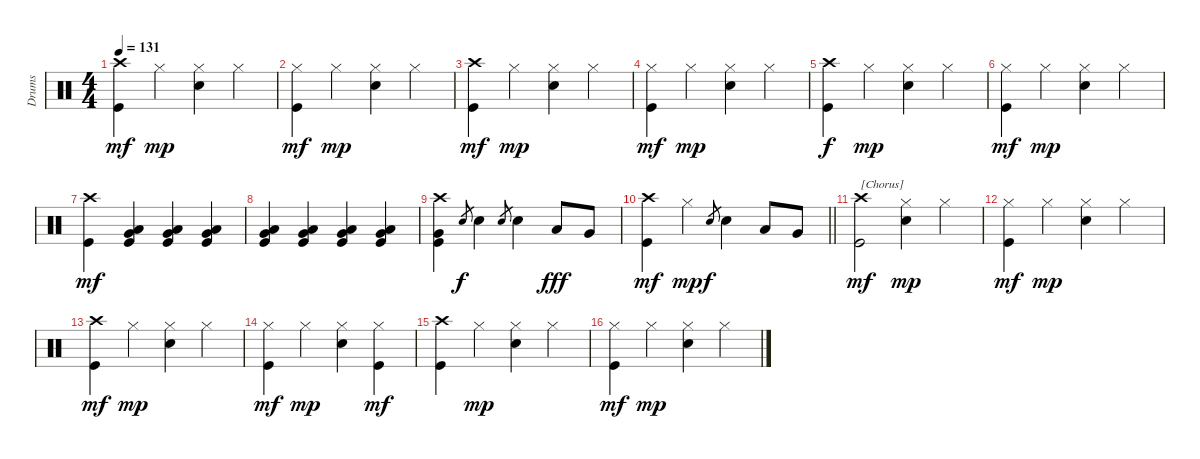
\track ("Drums" "Drums") {instrument percussion}
\staff {score}
\articulation defaults
\ts (4 4)
\tempo 131
\clef neutral
\ks c
("Crash high (hit)" "Kick (hit)").4{dy mf} "Hi-Hat (closed)".4{dy mp} ("Hi-Hat (closed)" "Snare (hit) 2").4 "Hi-Hat (closed)".4 |
("Hi-Hat (closed)" "Kick (hit)").4{dy mf} "Hi-Hat (closed)".4{dy mp} ("Hi-Hat (closed)" "Snare (hit) 2").4 "Hi-Hat (closed)".4 |
("Crash high (hit)" "Kick (hit)").4{dy mf} "Hi-Hat (closed)".4{dy mp} ("Hi-Hat (closed)" "Snare (hit) 2").4 "Hi-Hat (closed)".4 |
("Hi-Hat (closed)" "Kick (hit)").4{dy mf} "Hi-Hat (closed)".4{dy mp} ("Hi-Hat (closed)" "Snare (hit) 2").4 "Hi-Hat (closed)".4 |
("Crash high (hit)" "Kick (hit)").4{dy f} "Hi-Hat (closed)".4{dy mp} ("Hi-Hat (closed)" "Snare (hit) 2").4 "Hi-Hat (closed)".4 |
("Hi-Hat (closed)" "Kick (hit)").4{dy mf} "Hi-Hat (closed)".4{dy mp} ("Hi-Hat (closed)" "Snare (hit) 2").4 "Hi-Hat (closed)".4 |
("Crash high (hit)" "Kick (hit)").4{dy mf} ("Very Low Tom (hit)" "Low Tom (hit)" "Kick (hit)").4 ("Very Low Tom (hit)" "Low Tom (hit)" "Kick (hit)").4 ("Very Low Tom (hit)" "Low Tom (hit)" "Kick (hit)").4 |
("Very Low Tom (hit)" "Low Tom (hit)" "Kick (hit)").4 ("Very Low Tom (hit)" "Low Tom (hit)" "Kick (hit)").4 ("Very Low Tom (hit)" "Low Tom (hit)" "Kick (hit)").4 ("Very Low Tom (hit)" "Low Tom (hit)" "Kick (hit)").4 |
("Crash high (hit)" "Very Low Tom (hit)" "Kick (hit)").4 "Snare (hit) 2".8{gr dy f} "Snare (hit) 2".4 "Snare (hit) 2".8{gr} "Snare (hit) 2".4 "Low Tom (hit)".8{dy fff} "Very Low Tom (hit)".8 |
\barLineRight lightlight
("Crash high (hit)" "Kick (hit)").4{dy mf} "Hi-Hat (closed)".4{dy mp} "Snare (hit) 2".8{gr dy f} "Snare (hit) 2".4 "Low Tom (hit)".8 "Very Low Tom (hit)".8 |
("Crash high (hit)" "Kick (hit)").2{txt "[Chorus]" dy mf} ("Hi-Hat (closed)" "Snare (hit) 2").4{dy mp} "Hi-Hat (closed)".4 |
("Hi-Hat (closed)" "Kick (hit)").4{dy mf} "Hi-Hat (closed)".4{dy mp} ("Hi-Hat (closed)" "Snare (hit) 2").4 "Hi-Hat (closed)".4 |
("Crash high (hit)" "Kick (hit)").4{dy mf} "Hi-Hat (closed)".4{dy mp} ("Hi-Hat (closed)" "Snare (hit) 2").4 "Hi-Hat (closed)".4 |
("Hi-Hat (closed)" "Kick (hit)").4{dy mf} "Hi-Hat (closed)".4{dy mp} ("Hi-Hat (closed)" "Snare (hit) 2").4 ("Hi-Hat (closed)" "Kick (hit)").4{dy mf} |
("Crash high (hit)" "Kick (hit)").4 "Hi-Hat (closed)".4{dy mp} ("Hi-Hat (closed)" "Snare (hit) 2").4 "Hi-Hat (closed)".4 |
("Hi-Hat (closed)" "Kick (hit)").4{dy mf} "Hi-Hat (closed)".4{dy mp} ("Hi-Hat (closed)" "Snare (hit) 2").4 "Hi-Hat (closed)".4
